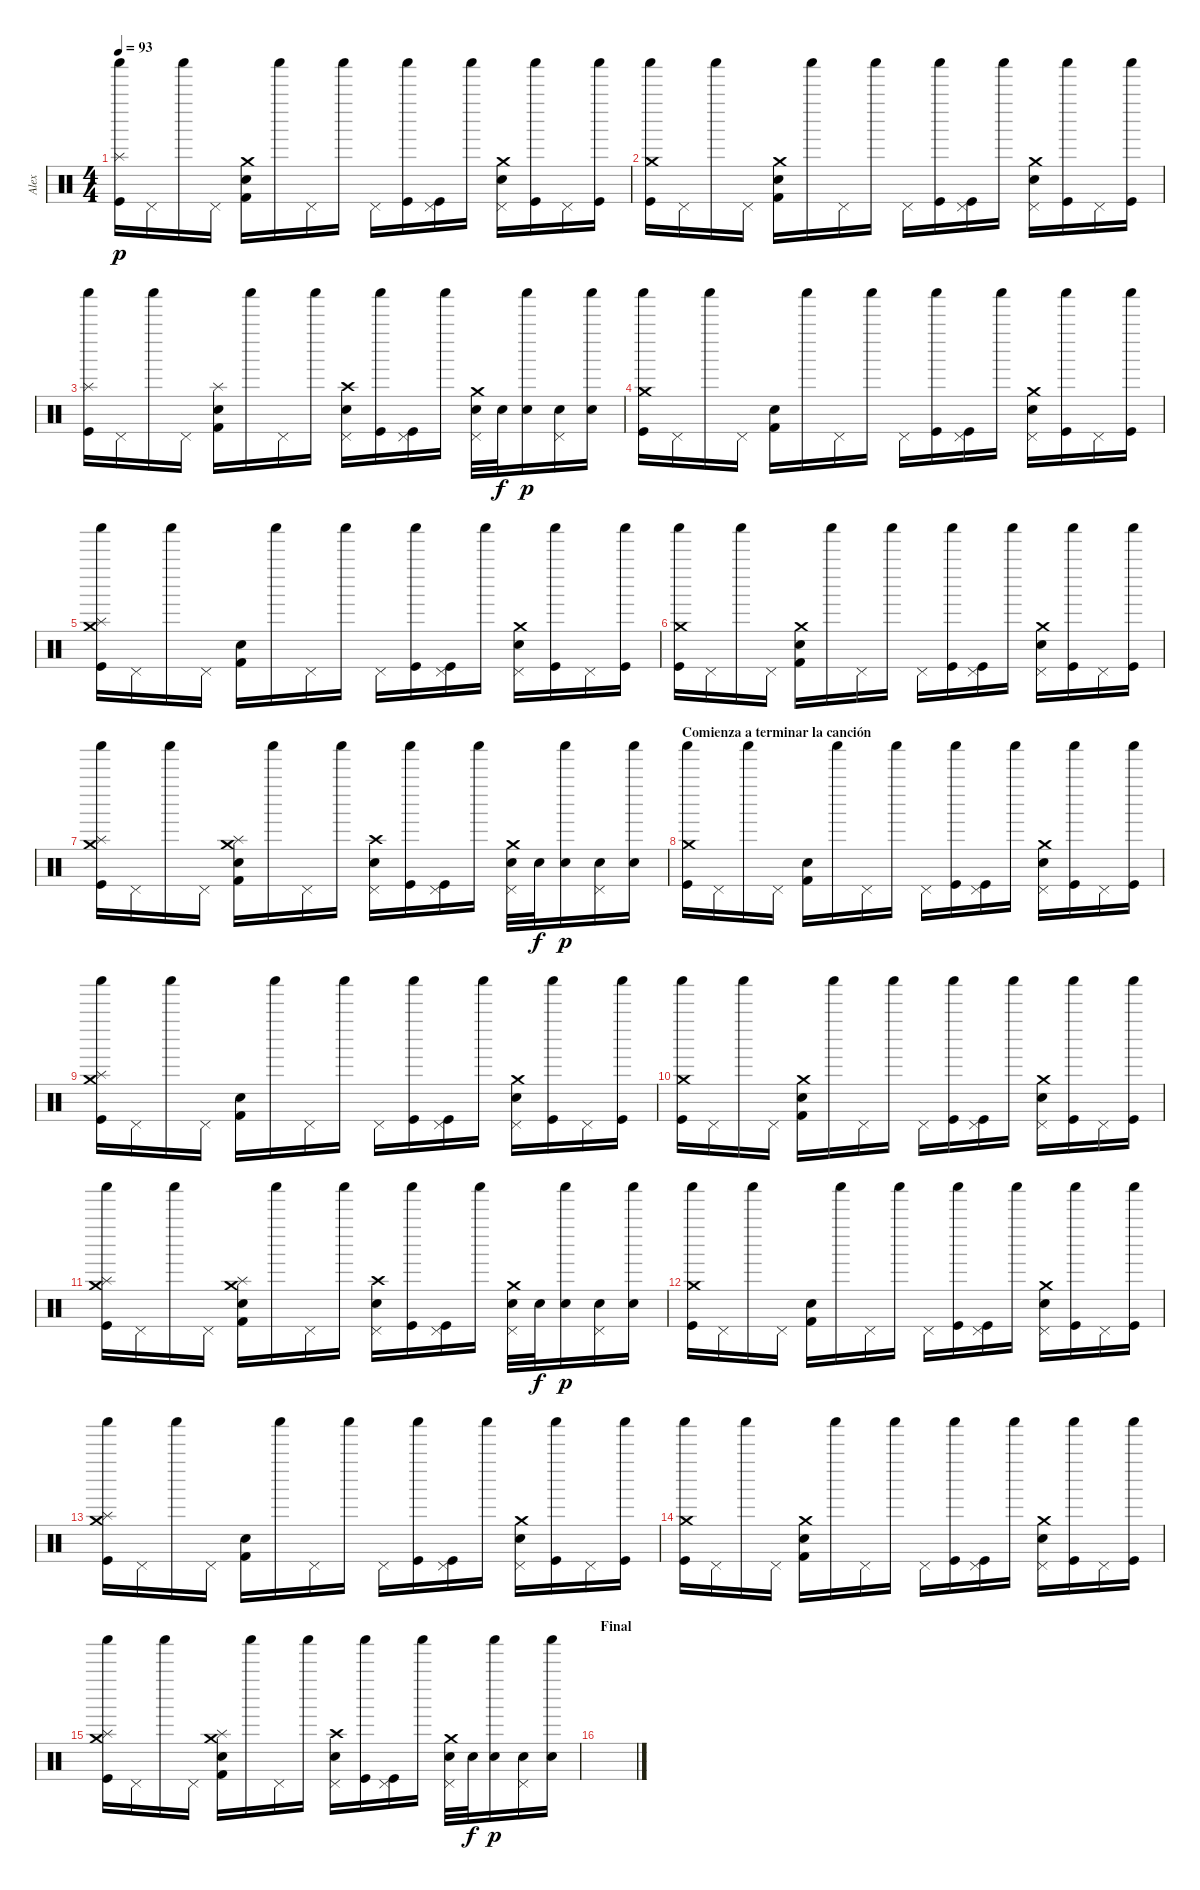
\track ("Alex" "Alex") {instrument percussion}
\staff {score}
\articulation defaults
\ts (4 4)
\tempo 93
\clef neutral
\ks c
("Kick (hit)" "Shaker (hit)" "Splash (hit)").16{dy p} "Pedal Hi-Hat (hit)".16 "Shaker (hit)".16 "Pedal Hi-Hat (hit)".16 ("Electric Snare (hit)" "Kick (hit) 2" "Crash medium (hit)").16 "Shaker (hit)".16 "Pedal Hi-Hat (hit)".16 "Shaker (hit)".16 "Pedal Hi-Hat (hit)".16 ("Kick (hit)" "Shaker (hit)").16 ("Kick (hit)" "Pedal Hi-Hat (hit)").16 "Shaker (hit)".16 ("Electric Snare (hit)" "Pedal Hi-Hat (hit)" "Crash medium (hit)").16 ("Kick (hit)" "Shaker (hit)").16 "Pedal Hi-Hat (hit)".16 ("Kick (hit)" "Shaker (hit)").16 |
("Kick (hit)" "Shaker (hit)" "Crash medium (hit)").16 "Pedal Hi-Hat (hit)".16 "Shaker (hit)".16 "Pedal Hi-Hat (hit)".16 ("Electric Snare (hit)" "Kick (hit) 2" "Crash medium (hit)").16 "Shaker (hit)".16 "Pedal Hi-Hat (hit)".16 "Shaker (hit)".16 "Pedal Hi-Hat (hit)".16 ("Kick (hit)" "Shaker (hit)").16 ("Kick (hit)" "Pedal Hi-Hat (hit)").16 "Shaker (hit)".16 ("Electric Snare (hit)" "Pedal Hi-Hat (hit)" "Crash medium (hit)").16 ("Kick (hit)" "Shaker (hit)").16 "Pedal Hi-Hat (hit)".16 ("Kick (hit)" "Shaker (hit)").16 |
("Kick (hit)" "Shaker (hit)" "Splash (hit)").16 "Pedal Hi-Hat (hit)".16 "Shaker (hit)".16 "Pedal Hi-Hat (hit)".16 ("Electric Snare (hit)" "Kick (hit) 2" "Splash (hit)").16 "Shaker (hit)".16 "Pedal Hi-Hat (hit)".16 "Shaker (hit)".16 ("Electric Snare (hit)" "Pedal Hi-Hat (hit)" "Crash high (hit)").16 ("Kick (hit)" "Shaker (hit)").16 ("Kick (hit)" "Pedal Hi-Hat (hit)").16 "Shaker (hit)".16 ("Electric Snare (hit)" "Pedal Hi-Hat (hit)" "Crash medium (hit)").32 "Electric Snare (hit)".32{dy f} ("Electric Snare (hit)" "Shaker (hit)").16{dy p} ("Electric Snare (hit)" "Pedal Hi-Hat (hit)").16 ("Electric Snare (hit)" "Shaker (hit)").16 |
("Kick (hit)" "Shaker (hit)" "Crash medium (hit)").16 "Pedal Hi-Hat (hit)".16 "Shaker (hit)".16 "Pedal Hi-Hat (hit)".16 ("Electric Snare (hit)" "Kick (hit) 2").16 "Shaker (hit)".16 "Pedal Hi-Hat (hit)".16 "Shaker (hit)".16 "Pedal Hi-Hat (hit)".16 ("Kick (hit)" "Shaker (hit)").16 ("Kick (hit)" "Pedal Hi-Hat (hit)").16 "Shaker (hit)".16 ("Electric Snare (hit)" "Pedal Hi-Hat (hit)" "Crash medium (hit)").16 ("Kick (hit)" "Shaker (hit)").16 "Pedal Hi-Hat (hit)".16 ("Kick (hit)" "Shaker (hit)").16 |
("Kick (hit)" "Shaker (hit)" "Splash (hit)" "Crash medium (hit)").16 "Pedal Hi-Hat (hit)".16 "Shaker (hit)".16 "Pedal Hi-Hat (hit)".16 ("Electric Snare (hit)" "Kick (hit) 2").16 "Shaker (hit)".16 "Pedal Hi-Hat (hit)".16 "Shaker (hit)".16 "Pedal Hi-Hat (hit)".16 ("Kick (hit)" "Shaker (hit)").16 ("Kick (hit)" "Pedal Hi-Hat (hit)").16 "Shaker (hit)".16 ("Electric Snare (hit)" "Pedal Hi-Hat (hit)" "Crash medium (hit)").16 ("Kick (hit)" "Shaker (hit)").16 "Pedal Hi-Hat (hit)".16 ("Kick (hit)" "Shaker (hit)").16 |
("Kick (hit)" "Shaker (hit)" "Crash medium (hit)").16 "Pedal Hi-Hat (hit)".16 "Shaker (hit)".16 "Pedal Hi-Hat (hit)".16 ("Electric Snare (hit)" "Kick (hit) 2" "Crash medium (hit)").16 "Shaker (hit)".16 "Pedal Hi-Hat (hit)".16 "Shaker (hit)".16 "Pedal Hi-Hat (hit)".16 ("Kick (hit)" "Shaker (hit)").16 ("Kick (hit)" "Pedal Hi-Hat (hit)").16 "Shaker (hit)".16 ("Electric Snare (hit)" "Pedal Hi-Hat (hit)" "Crash medium (hit)").16 ("Kick (hit)" "Shaker (hit)").16 "Pedal Hi-Hat (hit)".16 ("Kick (hit)" "Shaker (hit)").16 |
("Kick (hit)" "Shaker (hit)" "Splash (hit)" "Crash medium (hit)").16 "Pedal Hi-Hat (hit)".16 "Shaker (hit)".16 "Pedal Hi-Hat (hit)".16 ("Electric Snare (hit)" "Kick (hit) 2" "Splash (hit)" "Crash medium (hit)").16 "Shaker (hit)".16 "Pedal Hi-Hat (hit)".16 "Shaker (hit)".16 ("Electric Snare (hit)" "Pedal Hi-Hat (hit)" "Crash high (hit)").16 ("Kick (hit)" "Shaker (hit)").16 ("Kick (hit)" "Pedal Hi-Hat (hit)").16 "Shaker (hit)".16 ("Electric Snare (hit)" "Pedal Hi-Hat (hit)" "Crash medium (hit)").32 "Electric Snare (hit)".32{dy f} ("Electric Snare (hit)" "Shaker (hit)").16{dy p} ("Electric Snare (hit)" "Pedal Hi-Hat (hit)").16 ("Electric Snare (hit)" "Shaker (hit)").16 |
\section ("" "Comienza a terminar la canción")
("Kick (hit)" "Shaker (hit)" "Crash medium (hit)").16 "Pedal Hi-Hat (hit)".16 "Shaker (hit)".16 "Pedal Hi-Hat (hit)".16 ("Electric Snare (hit)" "Kick (hit) 2").16 "Shaker (hit)".16 "Pedal Hi-Hat (hit)".16 "Shaker (hit)".16{volume 13} "Pedal Hi-Hat (hit)".16 ("Kick (hit)" "Shaker (hit)").16 ("Kick (hit)" "Pedal Hi-Hat (hit)").16 "Shaker (hit)".16 ("Electric Snare (hit)" "Pedal Hi-Hat (hit)" "Crash medium (hit)").16 ("Kick (hit)" "Shaker (hit)").16 "Pedal Hi-Hat (hit)".16 ("Kick (hit)" "Shaker (hit)").16 |
("Kick (hit)" "Shaker (hit)" "Splash (hit)" "Crash medium (hit)").16{volume 11} "Pedal Hi-Hat (hit)".16 "Shaker (hit)".16 "Pedal Hi-Hat (hit)".16 ("Electric Snare (hit)" "Kick (hit) 2").16 "Shaker (hit)".16 "Pedal Hi-Hat (hit)".16 "Shaker (hit)".16 "Pedal Hi-Hat (hit)".16 ("Kick (hit)" "Shaker (hit)").16 ("Kick (hit)" "Pedal Hi-Hat (hit)").16 "Shaker (hit)".16{volume 9} ("Electric Snare (hit)" "Pedal Hi-Hat (hit)" "Crash medium (hit)").16 ("Kick (hit)" "Shaker (hit)").16 "Pedal Hi-Hat (hit)".16 ("Kick (hit)" "Shaker (hit)").16 |
("Kick (hit)" "Shaker (hit)" "Crash medium (hit)").16{volume 8} "Pedal Hi-Hat (hit)".16 "Shaker (hit)".16 "Pedal Hi-Hat (hit)".16 ("Electric Snare (hit)" "Kick (hit) 2" "Crash medium (hit)").16 "Shaker (hit)".16 "Pedal Hi-Hat (hit)".16 "Shaker (hit)".16 "Pedal Hi-Hat (hit)".16{volume 7} ("Kick (hit)" "Shaker (hit)").16 ("Kick (hit)" "Pedal Hi-Hat (hit)").16 "Shaker (hit)".16 ("Electric Snare (hit)" "Pedal Hi-Hat (hit)" "Crash medium (hit)").16 ("Kick (hit)" "Shaker (hit)").16 "Pedal Hi-Hat (hit)".16 ("Kick (hit)" "Shaker (hit)").16 |
("Kick (hit)" "Shaker (hit)" "Splash (hit)" "Crash medium (hit)").16 "Pedal Hi-Hat (hit)".16 "Shaker (hit)".16 "Pedal Hi-Hat (hit)".16 ("Electric Snare (hit)" "Kick (hit) 2" "Splash (hit)" "Crash medium (hit)").16{volume 6} "Shaker (hit)".16 "Pedal Hi-Hat (hit)".16 "Shaker (hit)".16 ("Electric Snare (hit)" "Pedal Hi-Hat (hit)" "Crash high (hit)").16 ("Kick (hit)" "Shaker (hit)").16 ("Kick (hit)" "Pedal Hi-Hat (hit)").16 "Shaker (hit)".16 ("Electric Snare (hit)" "Pedal Hi-Hat (hit)" "Crash medium (hit)").32{volume 5} "Electric Snare (hit)".32{dy f} ("Electric Snare (hit)" "Shaker (hit)").16{dy p} ("Electric Snare (hit)" "Pedal Hi-Hat (hit)").16 ("Electric Snare (hit)" "Shaker (hit)").16 |
("Kick (hit)" "Shaker (hit)" "Crash medium (hit)").16{volume 4} "Pedal Hi-Hat (hit)".16 "Shaker (hit)".16 "Pedal Hi-Hat (hit)".16 ("Electric Snare (hit)" "Kick (hit) 2").16 "Shaker (hit)".16 "Pedal Hi-Hat (hit)".16 "Shaker (hit)".16 "Pedal Hi-Hat (hit)".16 ("Kick (hit)" "Shaker (hit)").16 ("Kick (hit)" "Pedal Hi-Hat (hit)").16 "Shaker (hit)".16 ("Electric Snare (hit)" "Pedal Hi-Hat (hit)" "Crash medium (hit)").16 ("Kick (hit)" "Shaker (hit)").16 "Pedal Hi-Hat (hit)".16 ("Kick (hit)" "Shaker (hit)").16 |
("Kick (hit)" "Shaker (hit)" "Splash (hit)" "Crash medium (hit)").16{volume 3} "Pedal Hi-Hat (hit)".16 "Shaker (hit)".16 "Pedal Hi-Hat (hit)".16 ("Electric Snare (hit)" "Kick (hit) 2").16 "Shaker (hit)".16 "Pedal Hi-Hat (hit)".16 "Shaker (hit)".16 "Pedal Hi-Hat (hit)".16 ("Kick (hit)" "Shaker (hit)").16 ("Kick (hit)" "Pedal Hi-Hat (hit)").16 "Shaker (hit)".16 ("Electric Snare (hit)" "Pedal Hi-Hat (hit)" "Crash medium (hit)").16{volume 2} ("Kick (hit)" "Shaker (hit)").16 "Pedal Hi-Hat (hit)".16 ("Kick (hit)" "Shaker (hit)").16 |
("Kick (hit)" "Shaker (hit)" "Crash medium (hit)").16{volume 1} "Pedal Hi-Hat (hit)".16 "Shaker (hit)".16 "Pedal Hi-Hat (hit)".16 ("Electric Snare (hit)" "Kick (hit) 2" "Crash medium (hit)").16 "Shaker (hit)".16 "Pedal Hi-Hat (hit)".16 "Shaker (hit)".16 "Pedal Hi-Hat (hit)".16 ("Kick (hit)" "Shaker (hit)").16 ("Kick (hit)" "Pedal Hi-Hat (hit)").16 "Shaker (hit)".16 ("Electric Snare (hit)" "Pedal Hi-Hat (hit)" "Crash medium (hit)").16 ("Kick (hit)" "Shaker (hit)").16 "Pedal Hi-Hat (hit)".16 ("Kick (hit)" "Shaker (hit)").16 |
("Kick (hit)" "Shaker (hit)" "Splash (hit)" "Crash medium (hit)").16 "Pedal Hi-Hat (hit)".16 "Shaker (hit)".16 "Pedal Hi-Hat (hit)".16 ("Electric Snare (hit)" "Kick (hit) 2" "Splash (hit)" "Crash medium (hit)").16 "Shaker (hit)".16 "Pedal Hi-Hat (hit)".16 "Shaker (hit)".16 ("Electric Snare (hit)" "Pedal Hi-Hat (hit)" "Crash high (hit)").16 ("Kick (hit)" "Shaker (hit)").16 ("Kick (hit)" "Pedal Hi-Hat (hit)").16 "Shaker (hit)".16 ("Electric Snare (hit)" "Pedal Hi-Hat (hit)" "Crash medium (hit)").32 "Electric Snare (hit)".32{dy f} ("Electric Snare (hit)" "Shaker (hit)").16{dy p} ("Electric Snare (hit)" "Pedal Hi-Hat (hit)").16 ("Electric Snare (hit)" "Shaker (hit)").16 |
\section ("" "Final")
